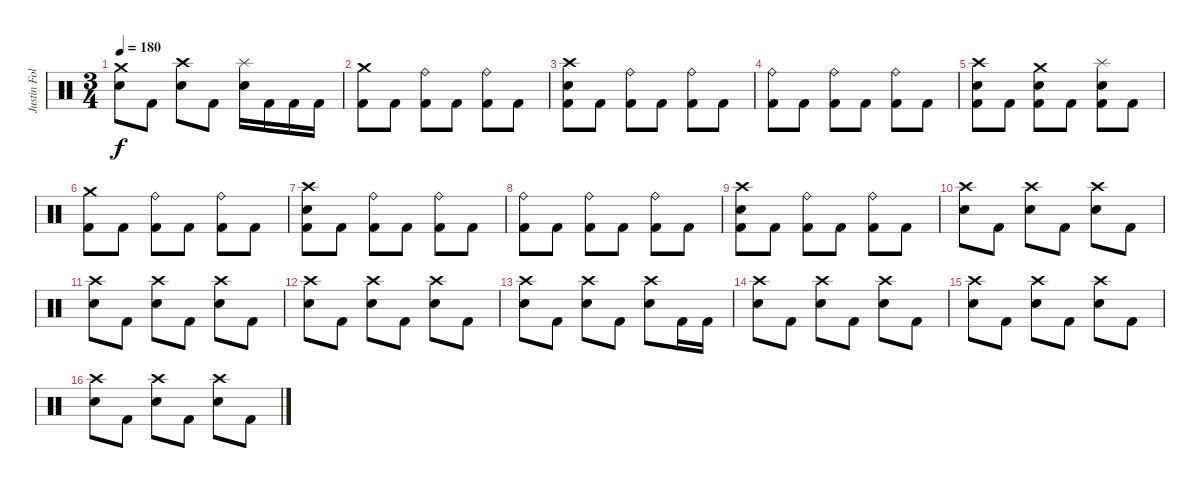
\track ("Justin Foley" "Justin Fol") {instrument percussion}
\staff {score}
\articulation defaults
\ts (3 4)
\tempo 180
\clef neutral
\ks c
("Crash medium (hit)" "Electric Snare (hit)").8{dy f} "Kick (hit) 2".8 ("Crash high (hit)" "Electric Snare (hit)").8 "Kick (hit) 2".8 ("Splash (hit)" "Electric Snare (hit)").16 "Kick (hit) 2".16 "Kick (hit) 2".16 "Kick (hit) 2".16 |
("Crash medium (hit)" "Kick (hit) 2").8 "Kick (hit) 2".8 ("Ride (bell)" "Kick (hit) 2").8 "Kick (hit) 2".8 ("Ride (bell)" "Kick (hit) 2").8 "Kick (hit) 2".8 |
("Crash high (hit)" "Electric Snare (hit)" "Kick (hit) 2").8 "Kick (hit) 2".8 ("Ride (bell)" "Kick (hit) 2").8 "Kick (hit) 2".8 ("Ride (bell)" "Kick (hit) 2").8 "Kick (hit) 2".8 |
("Ride (bell)" "Kick (hit) 2").8 "Kick (hit) 2".8 ("Ride (bell)" "Kick (hit) 2").8 "Kick (hit) 2".8 ("Ride (bell)" "Kick (hit) 2").8 "Kick (hit) 2".8 |
("Crash high (hit)" "Electric Snare (hit)" "Kick (hit) 2").8 "Kick (hit) 2".8 ("Crash medium (hit)" "Electric Snare (hit)" "Kick (hit) 2").8 "Kick (hit) 2".8 ("Splash (hit)" "Electric Snare (hit)" "Kick (hit) 2").8 "Kick (hit) 2".8 |
("Crash medium (hit)" "Kick (hit) 2").8 "Kick (hit) 2".8 ("Ride (bell)" "Kick (hit) 2").8 "Kick (hit) 2".8 ("Ride (bell)" "Kick (hit) 2").8 "Kick (hit) 2".8 |
("Crash high (hit)" "Electric Snare (hit)" "Kick (hit) 2").8 "Kick (hit) 2".8 ("Ride (bell)" "Kick (hit) 2").8 "Kick (hit) 2".8 ("Ride (bell)" "Kick (hit) 2").8 "Kick (hit) 2".8 |
("Ride (bell)" "Kick (hit) 2").8 "Kick (hit) 2".8 ("Ride (bell)" "Kick (hit) 2").8 "Kick (hit) 2".8 ("Ride (bell)" "Kick (hit) 2").8 "Kick (hit) 2".8 |
("Crash high (hit)" "Electric Snare (hit)" "Kick (hit) 2").8 "Kick (hit) 2".8 ("Ride (bell)" "Kick (hit) 2").8 "Kick (hit) 2".8 ("Ride (bell)" "Kick (hit) 2").8 "Kick (hit) 2".8 |
("Crash high (hit)" "Electric Snare (hit)").8 "Kick (hit) 2".8 ("Crash high (hit)" "Electric Snare (hit)").8 "Kick (hit) 2".8 ("Crash high (hit)" "Electric Snare (hit)").8 "Kick (hit) 2".8 |
("Crash high (hit)" "Electric Snare (hit)").8 "Kick (hit) 2".8 ("Crash high (hit)" "Electric Snare (hit)").8 "Kick (hit) 2".8 ("Crash high (hit)" "Electric Snare (hit)").8 "Kick (hit) 2".8 |
("Crash high (hit)" "Electric Snare (hit)").8 "Kick (hit) 2".8 ("Crash high (hit)" "Electric Snare (hit)").8 "Kick (hit) 2".8 ("Crash high (hit)" "Electric Snare (hit)").8 "Kick (hit) 2".8 |
("Crash high (hit)" "Electric Snare (hit)").8 "Kick (hit) 2".8 ("Crash high (hit)" "Electric Snare (hit)").8 "Kick (hit) 2".8 ("Crash high (hit)" "Electric Snare (hit)").8 "Kick (hit) 2".16 "Kick (hit) 2".16 |
("Crash high (hit)" "Electric Snare (hit)").8 "Kick (hit) 2".8 ("Crash high (hit)" "Electric Snare (hit)").8 "Kick (hit) 2".8 ("Crash high (hit)" "Electric Snare (hit)").8 "Kick (hit) 2".8 |
("Crash high (hit)" "Electric Snare (hit)").8 "Kick (hit) 2".8 ("Crash high (hit)" "Electric Snare (hit)").8 "Kick (hit) 2".8 ("Crash high (hit)" "Electric Snare (hit)").8 "Kick (hit) 2".8 |
("Crash high (hit)" "Electric Snare (hit)").8 "Kick (hit) 2".8 ("Crash high (hit)" "Electric Snare (hit)").8 "Kick (hit) 2".8 ("Crash high (hit)" "Electric Snare (hit)").8 "Kick (hit) 2".8
